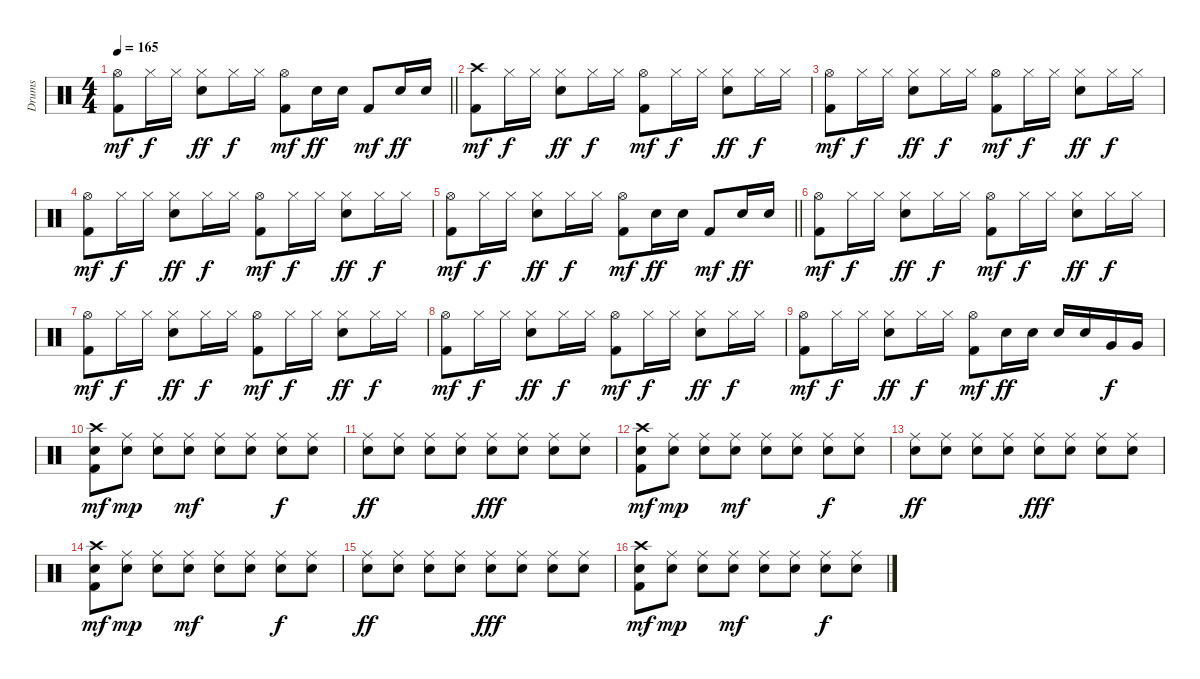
\track ("Drums" "Drums") {instrument percussion}
\staff {score}
\articulation defaults
\ts (4 4)
\tempo 165
\clef neutral
\barLineRight lightlight
\ks c
("Hi-Hat (open)" "Kick (hit) 2").8{dy mf} "Hi-Hat (closed)".16{dy f} "Hi-Hat (closed)".16 ("Hi-Hat (closed)" "Electric Snare (hit)").8{dy ff} "Hi-Hat (closed)".16{dy f} "Hi-Hat (closed)".16 ("Hi-Hat (open)" "Kick (hit) 2").8{dy mf} "Electric Snare (hit)".16{dy ff} "Electric Snare (hit)".16 "Kick (hit) 2".8{dy mf} "Electric Snare (hit)".16{dy ff} "Electric Snare (hit)".16 |
("Crash high (hit)" "Kick (hit) 2").8{dy mf} "Hi-Hat (closed)".16{dy f} "Hi-Hat (closed)".16 ("Hi-Hat (closed)" "Electric Snare (hit)").8{dy ff} "Hi-Hat (closed)".16{dy f} "Hi-Hat (closed)".16 ("Hi-Hat (open)" "Kick (hit) 2").8{dy mf} "Hi-Hat (closed)".16{dy f} "Hi-Hat (closed)".16 ("Hi-Hat (closed)" "Electric Snare (hit)").8{dy ff} "Hi-Hat (closed)".16{dy f} "Hi-Hat (closed)".16 |
("Hi-Hat (open)" "Kick (hit) 2").8{dy mf} "Hi-Hat (closed)".16{dy f} "Hi-Hat (closed)".16 ("Hi-Hat (closed)" "Electric Snare (hit)").8{dy ff} "Hi-Hat (closed)".16{dy f} "Hi-Hat (closed)".16 ("Hi-Hat (open)" "Kick (hit) 2").8{dy mf} "Hi-Hat (closed)".16{dy f} "Hi-Hat (closed)".16 ("Hi-Hat (closed)" "Electric Snare (hit)").8{dy ff} "Hi-Hat (closed)".16{dy f} "Hi-Hat (closed)".16 |
("Hi-Hat (open)" "Kick (hit) 2").8{dy mf} "Hi-Hat (closed)".16{dy f} "Hi-Hat (closed)".16 ("Hi-Hat (closed)" "Electric Snare (hit)").8{dy ff} "Hi-Hat (closed)".16{dy f} "Hi-Hat (closed)".16 ("Hi-Hat (open)" "Kick (hit) 2").8{dy mf} "Hi-Hat (closed)".16{dy f} "Hi-Hat (closed)".16 ("Hi-Hat (closed)" "Electric Snare (hit)").8{dy ff} "Hi-Hat (closed)".16{dy f} "Hi-Hat (closed)".16 |
\barLineRight lightlight
("Hi-Hat (open)" "Kick (hit) 2").8{dy mf} "Hi-Hat (closed)".16{dy f} "Hi-Hat (closed)".16 ("Hi-Hat (closed)" "Electric Snare (hit)").8{dy ff} "Hi-Hat (closed)".16{dy f} "Hi-Hat (closed)".16 ("Hi-Hat (open)" "Kick (hit) 2").8{dy mf} "Electric Snare (hit)".16{dy ff} "Electric Snare (hit)".16 "Kick (hit) 2".8{dy mf} "Electric Snare (hit)".16{dy ff} "Electric Snare (hit)".16 |
("Hi-Hat (open)" "Kick (hit) 2").8{dy mf} "Hi-Hat (closed)".16{dy f} "Hi-Hat (closed)".16 ("Hi-Hat (closed)" "Electric Snare (hit)").8{dy ff} "Hi-Hat (closed)".16{dy f} "Hi-Hat (closed)".16 ("Hi-Hat (open)" "Kick (hit) 2").8{dy mf} "Hi-Hat (closed)".16{dy f} "Hi-Hat (closed)".16 ("Hi-Hat (closed)" "Electric Snare (hit)").8{dy ff} "Hi-Hat (closed)".16{dy f} "Hi-Hat (closed)".16 |
("Hi-Hat (open)" "Kick (hit) 2").8{dy mf} "Hi-Hat (closed)".16{dy f} "Hi-Hat (closed)".16 ("Hi-Hat (closed)" "Electric Snare (hit)").8{dy ff} "Hi-Hat (closed)".16{dy f} "Hi-Hat (closed)".16 ("Hi-Hat (open)" "Kick (hit) 2").8{dy mf} "Hi-Hat (closed)".16{dy f} "Hi-Hat (closed)".16 ("Hi-Hat (closed)" "Electric Snare (hit)").8{dy ff} "Hi-Hat (closed)".16{dy f} "Hi-Hat (closed)".16 |
("Hi-Hat (open)" "Kick (hit) 2").8{dy mf} "Hi-Hat (closed)".16{dy f} "Hi-Hat (closed)".16 ("Hi-Hat (closed)" "Electric Snare (hit)").8{dy ff} "Hi-Hat (closed)".16{dy f} "Hi-Hat (closed)".16 ("Hi-Hat (open)" "Kick (hit) 2").8{dy mf} "Hi-Hat (closed)".16{dy f} "Hi-Hat (closed)".16 ("Hi-Hat (closed)" "Electric Snare (hit)").8{dy ff} "Hi-Hat (closed)".16{dy f} "Hi-Hat (closed)".16 |
("Hi-Hat (open)" "Kick (hit) 2").8{dy mf} "Hi-Hat (closed)".16{dy f} "Hi-Hat (closed)".16 ("Hi-Hat (closed)" "Electric Snare (hit)").8{dy ff} "Hi-Hat (closed)".16{dy f} "Hi-Hat (closed)".16 ("Hi-Hat (open)" "Kick (hit) 2").8{dy mf} "Electric Snare (hit)".16{dy ff} "Electric Snare (hit)".16 "Electric Snare (hit)".16 "Electric Snare (hit)".16 "Very Low Tom (hit)".16{dy f} "Very Low Tom (hit)".16 |
("Crash high (hit)" "Electric Snare (hit)" "Kick (hit) 2").8{dy mf} ("Ride (middle)" "Electric Snare (hit)").8{dy mp} ("Ride (middle)" "Electric Snare (hit)").8 ("Ride (middle)" "Electric Snare (hit)").8{dy mf} ("Ride (middle)" "Electric Snare (hit)").8 ("Ride (middle)" "Electric Snare (hit)").8 ("Ride (middle)" "Electric Snare (hit)").8{dy f} ("Ride (middle)" "Electric Snare (hit)").8 |
("Ride (middle)" "Electric Snare (hit)").8{dy ff} ("Ride (middle)" "Electric Snare (hit)").8 ("Ride (middle)" "Electric Snare (hit)").8 ("Ride (middle)" "Electric Snare (hit)").8 ("Ride (middle)" "Electric Snare (hit)").8{dy fff} ("Ride (middle)" "Electric Snare (hit)").8 ("Ride (middle)" "Electric Snare (hit)").8 ("Ride (middle)" "Electric Snare (hit)").8 |
("Crash high (hit)" "Electric Snare (hit)" "Kick (hit) 2").8{dy mf} ("Ride (middle)" "Electric Snare (hit)").8{dy mp} ("Ride (middle)" "Electric Snare (hit)").8 ("Ride (middle)" "Electric Snare (hit)").8{dy mf} ("Ride (middle)" "Electric Snare (hit)").8 ("Ride (middle)" "Electric Snare (hit)").8 ("Ride (middle)" "Electric Snare (hit)").8{dy f} ("Ride (middle)" "Electric Snare (hit)").8 |
("Ride (middle)" "Electric Snare (hit)").8{dy ff} ("Ride (middle)" "Electric Snare (hit)").8 ("Ride (middle)" "Electric Snare (hit)").8 ("Ride (middle)" "Electric Snare (hit)").8 ("Ride (middle)" "Electric Snare (hit)").8{dy fff} ("Ride (middle)" "Electric Snare (hit)").8 ("Ride (middle)" "Electric Snare (hit)").8 ("Ride (middle)" "Electric Snare (hit)").8 |
("Crash high (hit)" "Electric Snare (hit)" "Kick (hit) 2").8{dy mf} ("Ride (middle)" "Electric Snare (hit)").8{dy mp} ("Ride (middle)" "Electric Snare (hit)").8 ("Ride (middle)" "Electric Snare (hit)").8{dy mf} ("Ride (middle)" "Electric Snare (hit)").8 ("Ride (middle)" "Electric Snare (hit)").8 ("Ride (middle)" "Electric Snare (hit)").8{dy f} ("Ride (middle)" "Electric Snare (hit)").8 |
("Ride (middle)" "Electric Snare (hit)").8{dy ff} ("Ride (middle)" "Electric Snare (hit)").8 ("Ride (middle)" "Electric Snare (hit)").8 ("Ride (middle)" "Electric Snare (hit)").8 ("Ride (middle)" "Electric Snare (hit)").8{dy fff} ("Ride (middle)" "Electric Snare (hit)").8 ("Ride (middle)" "Electric Snare (hit)").8 ("Ride (middle)" "Electric Snare (hit)").8 |
("Crash high (hit)" "Electric Snare (hit)" "Kick (hit) 2").8{dy mf} ("Ride (middle)" "Electric Snare (hit)").8{dy mp} ("Ride (middle)" "Electric Snare (hit)").8 ("Ride (middle)" "Electric Snare (hit)").8{dy mf} ("Ride (middle)" "Electric Snare (hit)").8 ("Ride (middle)" "Electric Snare (hit)").8 ("Ride (middle)" "Electric Snare (hit)").8{dy f} ("Ride (middle)" "Electric Snare (hit)").8
